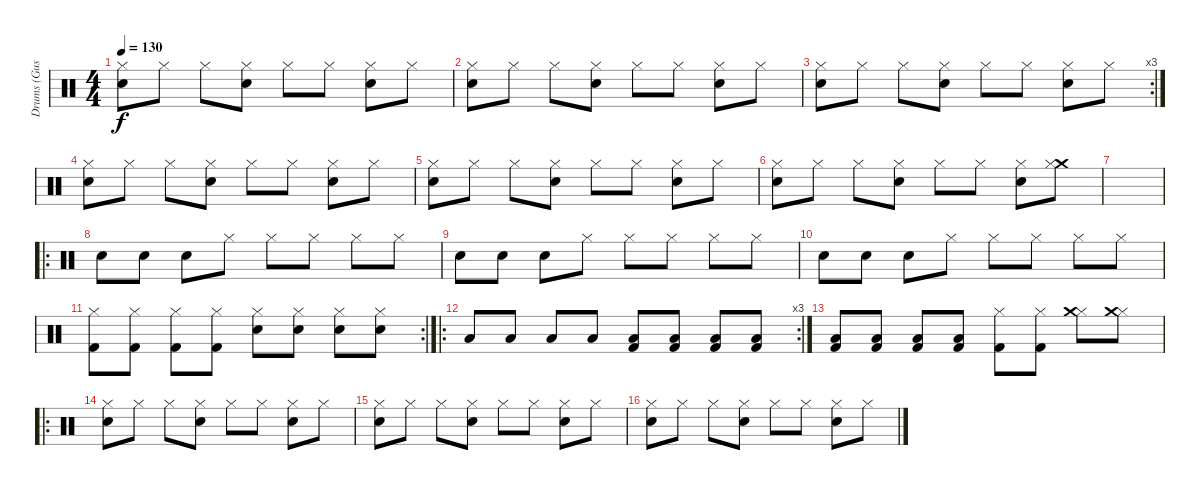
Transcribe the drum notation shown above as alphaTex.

\track ("Drums (Gustav) " "Drums (Gus") {instrument percussion}
\staff {score}
\articulation defaults
\ts (4 4)
\tempo 130
\clef neutral
\ks c
("Snare (hit) 2" "Hi-Hat (closed)").8{dy f} "Hi-Hat (closed)".8 "Hi-Hat (closed)".8 ("Snare (hit) 2" "Hi-Hat (closed)").8 "Hi-Hat (closed)".8 "Hi-Hat (closed)".8 ("Snare (hit) 2" "Hi-Hat (closed)").8 "Hi-Hat (closed)".8 |
("Snare (hit) 2" "Hi-Hat (closed)").8 "Hi-Hat (closed)".8 "Hi-Hat (closed)".8 ("Snare (hit) 2" "Hi-Hat (closed)").8 "Hi-Hat (closed)".8 "Hi-Hat (closed)".8 ("Snare (hit) 2" "Hi-Hat (closed)").8 "Hi-Hat (closed)".8 |
\rc 3
("Snare (hit) 2" "Hi-Hat (closed)").8 "Hi-Hat (closed)".8 "Hi-Hat (closed)".8 ("Snare (hit) 2" "Hi-Hat (closed)").8 "Hi-Hat (closed)".8 "Hi-Hat (closed)".8 ("Snare (hit) 2" "Hi-Hat (closed)").8 "Hi-Hat (closed)".8 |
("Snare (hit) 2" "Hi-Hat (closed)").8 "Hi-Hat (closed)".8 "Hi-Hat (closed)".8 ("Snare (hit) 2" "Hi-Hat (closed)").8 "Hi-Hat (closed)".8 "Hi-Hat (closed)".8 ("Snare (hit) 2" "Hi-Hat (closed)").8 "Hi-Hat (closed)".8 |
("Snare (hit) 2" "Hi-Hat (closed)").8 "Hi-Hat (closed)".8 "Hi-Hat (closed)".8 ("Snare (hit) 2" "Hi-Hat (closed)").8 "Hi-Hat (closed)".8 "Hi-Hat (closed)".8 ("Snare (hit) 2" "Hi-Hat (closed)").8 "Hi-Hat (closed)".8 |
("Snare (hit) 2" "Hi-Hat (closed)").8 "Hi-Hat (closed)".8 "Hi-Hat (closed)".8 ("Snare (hit) 2" "Hi-Hat (closed)").8 "Hi-Hat (closed)".8 "Hi-Hat (closed)".8 ("Snare (hit) 2" "Hi-Hat (closed)").8 ("Crash medium (hit)" "Hi-Hat (closed)").8 |
|
\ro "Snare (hit) 2".8 "Snare (hit) 2".8 "Snare (hit) 2".8 "Hi-Hat (closed)".8 "Hi-Hat (closed)".8 "Hi-Hat (closed)".8 "Hi-Hat (closed)".8 "Hi-Hat (closed)".8
|
"Snare (hit) 2".8 "Snare (hit) 2".8 "Snare (hit) 2".8 "Hi-Hat (closed)".8 "Hi-Hat (closed)".8 "Hi-Hat (closed)".8 "Hi-Hat (closed)".8 "Hi-Hat (closed)".8 |
"Snare (hit) 2".8 "Snare (hit) 2".8 "Snare (hit) 2".8 "Hi-Hat (closed)".8 "Hi-Hat (closed)".8 "Hi-Hat (closed)".8 "Hi-Hat (closed)".8 "Hi-Hat (closed)".8 |
\rc 2
("Kick (hit) 2" "Hi-Hat (closed)").8 ("Kick (hit) 2" "Hi-Hat (closed)").8 ("Kick (hit) 2" "Hi-Hat (closed)").8 ("Kick (hit) 2" "Hi-Hat (closed)").8 ("Snare (hit) 2" "Hi-Hat (closed)").8 ("Snare (hit) 2" "Hi-Hat (closed)").8 ("Snare (hit) 2" "Hi-Hat (closed)").8 ("Snare (hit) 2" "Hi-Hat (closed)").8 |
\ro
\rc 3 "Low Floor Tom (hit)".8 "Low Floor Tom (hit)".8 "Low Floor Tom (hit)".8 "Low Floor Tom (hit)".8
("Low Floor Tom (hit)" "Kick (hit) 2").8 ("Low Floor Tom (hit)" "Kick (hit) 2").8 ("Low Floor Tom (hit)" "Kick (hit) 2").8 ("Low Floor Tom (hit)" "Kick (hit) 2").8 |
("Low Floor Tom (hit)" "Kick (hit) 2").8 ("Low Floor Tom (hit)" "Kick (hit) 2").8 ("Low Floor Tom (hit)" "Kick (hit) 2").8 ("Low Floor Tom (hit)" "Kick (hit) 2").8 ("Hi-Hat (closed)" "Kick (hit) 2").8 ("Hi-Hat (closed)" "Kick (hit) 2").8 ("Hi-Hat (closed)" "Crash medium (hit)").8 ("Hi-Hat (closed)" "Crash medium (hit)").8 |
\ro
("Snare (hit) 2" "Hi-Hat (closed)").8 "Hi-Hat (closed)".8 "Hi-Hat (closed)".8 ("Snare (hit) 2" "Hi-Hat (closed)").8 "Hi-Hat (closed)".8 "Hi-Hat (closed)".8 ("Snare (hit) 2" "Hi-Hat (closed)").8 "Hi-Hat (closed)".8 |
("Snare (hit) 2" "Hi-Hat (closed)").8 "Hi-Hat (closed)".8 "Hi-Hat (closed)".8 ("Snare (hit) 2" "Hi-Hat (closed)").8 "Hi-Hat (closed)".8 "Hi-Hat (closed)".8 ("Snare (hit) 2" "Hi-Hat (closed)").8 "Hi-Hat (closed)".8 |
("Snare (hit) 2" "Hi-Hat (closed)").8 "Hi-Hat (closed)".8 "Hi-Hat (closed)".8 ("Snare (hit) 2" "Hi-Hat (closed)").8 "Hi-Hat (closed)".8 "Hi-Hat (closed)".8 ("Snare (hit) 2" "Hi-Hat (closed)").8 "Hi-Hat (closed)".8
